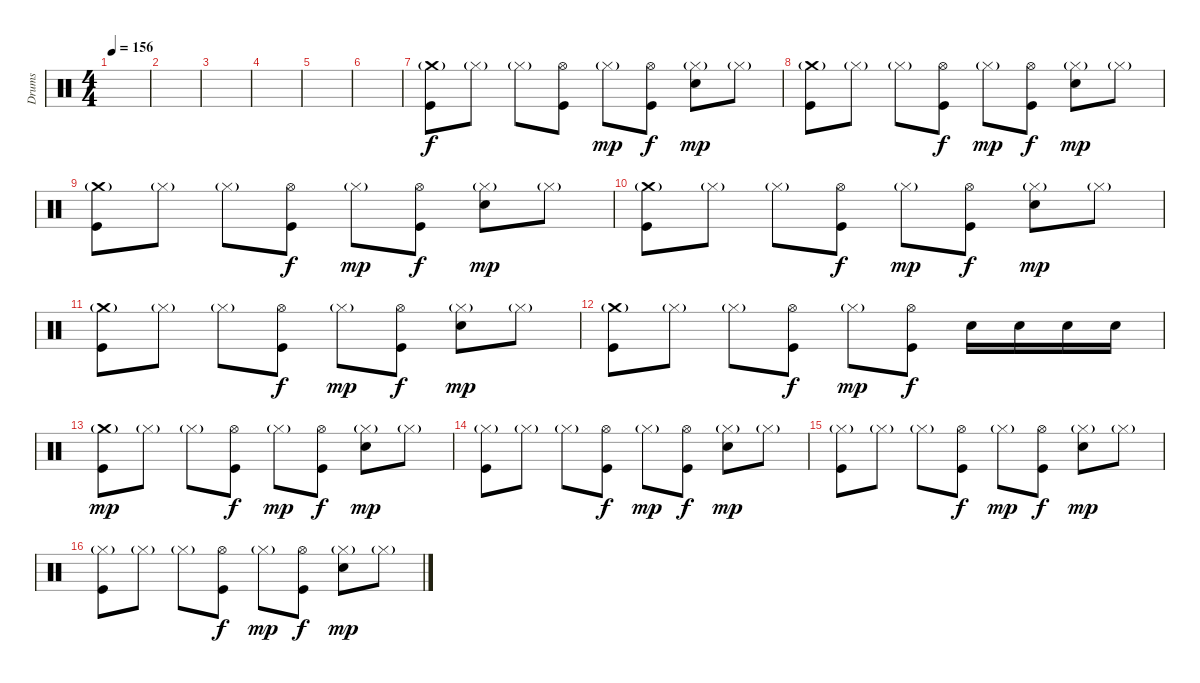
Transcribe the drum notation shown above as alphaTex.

\track ("Drums" "Drums") {instrument percussion}
\staff {score}
\articulation defaults
\ts (4 4)
\tempo 156
\clef neutral
\ks c
|
|
|
|
|
|
("Crash medium (hit)"{g} "Kick (hit)").8{volume 5} "Hi-Hat (closed)"{g}.8 "Hi-Hat (closed)"{g}.8 ("Hi-Hat (open)" "Kick (hit)").8{dy f} "Hi-Hat (closed)"{g}.8{dy mp} ("Hi-Hat (open)" "Kick (hit)").8{dy f} ("Hi-Hat (closed)"{g} "Electric Snare (hit)").8{dy mp} "Hi-Hat (closed)"{g}.8 |
("Crash medium (hit)"{g} "Kick (hit)").8 "Hi-Hat (closed)"{g}.8 "Hi-Hat (closed)"{g}.8 ("Hi-Hat (open)" "Kick (hit)").8{dy f} "Hi-Hat (closed)"{g}.8{dy mp} ("Hi-Hat (open)" "Kick (hit)").8{dy f} ("Hi-Hat (closed)"{g} "Electric Snare (hit)").8{dy mp} "Hi-Hat (closed)"{g}.8 |
("Crash medium (hit)"{g} "Kick (hit)").8{volume 10} "Hi-Hat (closed)"{g}.8 "Hi-Hat (closed)"{g}.8 ("Hi-Hat (open)" "Kick (hit)").8{dy f} "Hi-Hat (closed)"{g}.8{dy mp} ("Hi-Hat (open)" "Kick (hit)").8{dy f} ("Hi-Hat (closed)"{g} "Electric Snare (hit)").8{dy mp} "Hi-Hat (closed)"{g}.8 |
("Crash medium (hit)"{g} "Kick (hit)").8 "Hi-Hat (closed)"{g}.8 "Hi-Hat (closed)"{g}.8 ("Hi-Hat (open)" "Kick (hit)").8{dy f} "Hi-Hat (closed)"{g}.8{dy mp} ("Hi-Hat (open)" "Kick (hit)").8{dy f} ("Hi-Hat (closed)"{g} "Electric Snare (hit)").8{dy mp} "Hi-Hat (closed)"{g}.8 |
("Crash medium (hit)"{g} "Kick (hit)").8 "Hi-Hat (closed)"{g}.8 "Hi-Hat (closed)"{g}.8 ("Hi-Hat (open)" "Kick (hit)").8{dy f} "Hi-Hat (closed)"{g}.8{dy mp} ("Hi-Hat (open)" "Kick (hit)").8{dy f} ("Hi-Hat (closed)"{g} "Electric Snare (hit)").8{dy mp} "Hi-Hat (closed)"{g}.8 |
("Crash medium (hit)"{g} "Kick (hit)").8 "Hi-Hat (closed)"{g}.8 "Hi-Hat (closed)"{g}.8 ("Hi-Hat (open)" "Kick (hit)").8{dy f} "Hi-Hat (closed)"{g}.8{dy mp} ("Hi-Hat (open)" "Kick (hit)").8{dy f} "Electric Snare (hit)".16 "Electric Snare (hit)".16 "Electric Snare (hit)".16 "Electric Snare (hit)".16 |
("Crash medium (hit)"{g} "Kick (hit)").8{dy mp} "Hi-Hat (closed)"{g}.8 "Hi-Hat (closed)"{g}.8 ("Hi-Hat (open)" "Kick (hit)").8{dy f} "Hi-Hat (closed)"{g}.8{dy mp} ("Hi-Hat (open)" "Kick (hit)").8{dy f} ("Hi-Hat (closed)"{g} "Electric Snare (hit)").8{dy mp} "Hi-Hat (closed)"{g}.8 |
("Hi-Hat (closed)"{g} "Kick (hit)").8 "Hi-Hat (closed)"{g}.8 "Hi-Hat (closed)"{g}.8 ("Hi-Hat (open)" "Kick (hit)").8{dy f} "Hi-Hat (closed)"{g}.8{dy mp} ("Hi-Hat (open)" "Kick (hit)").8{dy f} ("Hi-Hat (closed)"{g} "Electric Snare (hit)").8{dy mp} "Hi-Hat (closed)"{g}.8 |
("Hi-Hat (closed)"{g} "Kick (hit)").8 "Hi-Hat (closed)"{g}.8 "Hi-Hat (closed)"{g}.8 ("Hi-Hat (open)" "Kick (hit)").8{dy f} "Hi-Hat (closed)"{g}.8{dy mp} ("Hi-Hat (open)" "Kick (hit)").8{dy f} ("Hi-Hat (closed)"{g} "Electric Snare (hit)").8{dy mp} "Hi-Hat (closed)"{g}.8 |
("Hi-Hat (closed)"{g} "Kick (hit)").8 "Hi-Hat (closed)"{g}.8 "Hi-Hat (closed)"{g}.8 ("Hi-Hat (open)" "Kick (hit)").8{dy f} "Hi-Hat (closed)"{g}.8{dy mp} ("Hi-Hat (open)" "Kick (hit)").8{dy f} ("Hi-Hat (closed)"{g} "Electric Snare (hit)").8{dy mp} "Hi-Hat (closed)"{g}.8
